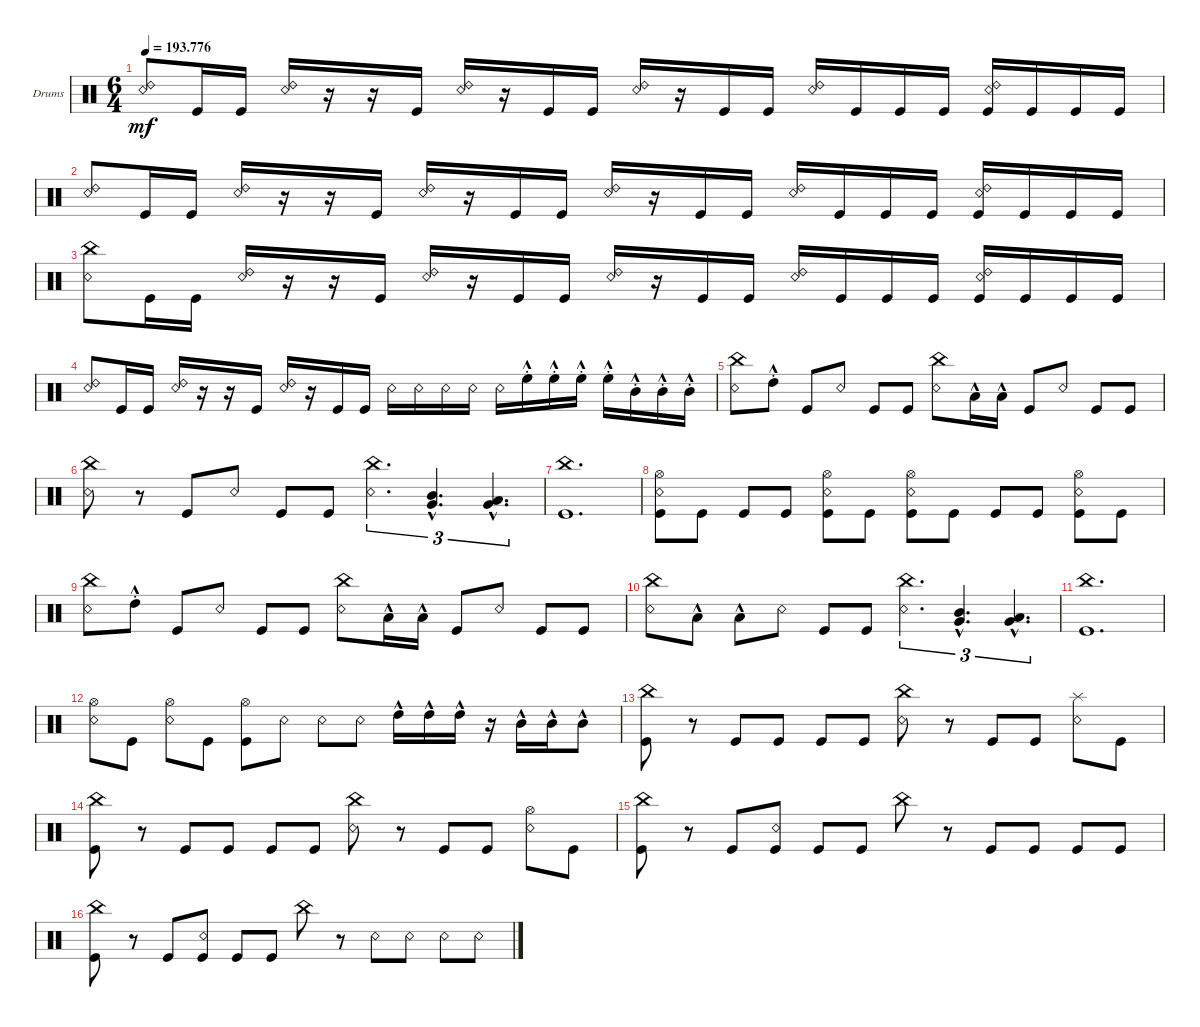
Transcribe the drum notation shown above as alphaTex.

\defaultSystemsLayout 4
\bracketExtendMode groupsimilarinstruments
\firstSystemTrackNameOrientation horizontal
\otherSystemsTrackNameOrientation horizontal
\track ("Drumkit" "Drums") {multiBarRest instrument percussion}
\staff {score}
\articulation defaults
\ts (6 4)
\tempo
193.776
\accidentals auto
\clef neutral
\ottava regular
\simile none
\scale
0.333333
\ks c
("Snare (rim shot)" "Ride (bell) 2").8{dy mf} "Kick (hit)".16 "Kick (hit)".16 ("Snare (rim shot)" "Ride (bell) 2").16 r.16 r.16 "Kick (hit)".16 ("Ride (bell) 2" "Snare (rim shot)").16 r.16 "Kick (hit)".16 "Kick (hit)".16 ("Snare (rim shot)" "Ride (bell) 2").16 r.16 "Kick (hit)".16 "Kick (hit)".16 ("Snare (rim shot)" "Ride (bell) 2").16 "Kick (hit)".16 "Kick (hit)".16 "Kick (hit)".16 ("Kick (hit)" "Snare (rim shot)" "Ride (bell) 2").16 "Kick (hit)".16 "Kick (hit)".16 "Kick (hit)".16 |
\scale
0.333333 ("Snare (rim shot)" "Ride (bell) 2").8 "Kick (hit)".16 "Kick (hit)".16 ("Snare (rim shot)" "Ride (bell) 2").16 r.16 r.16 "Kick (hit)".16 ("Ride (bell) 2" "Snare (rim shot)").16 r.16 "Kick (hit)".16 "Kick (hit)".16 ("Snare (rim shot)" "Ride (bell) 2").16 r.16 "Kick (hit)".16 "Kick (hit)".16 ("Snare (rim shot)" "Ride (bell) 2").16 "Kick (hit)".16 "Kick (hit)".16 "Kick (hit)".16 ("Kick (hit)" "Snare (rim shot)" "Ride (bell) 2").16 "Kick (hit)".16 "Kick (hit)".16 "Kick (hit)".16 |
\scale
0.333333 ("Snare (rim shot)" "China (hit)").8 "Kick (hit)".16 "Kick (hit)".16 ("Snare (rim shot)" "Ride (bell) 2").16 r.16 r.16 "Kick (hit)".16 ("Ride (bell) 2" "Snare (rim shot)").16 r.16 "Kick (hit)".16 "Kick (hit)".16 ("Snare (rim shot)" "Ride (bell) 2").16 r.16 "Kick (hit)".16 "Kick (hit)".16 ("Snare (rim shot)" "Ride (bell) 2").16 "Kick (hit)".16 "Kick (hit)".16 "Kick (hit)".16 ("Kick (hit)" "Snare (rim shot)" "Ride (bell) 2").16 "Kick (hit)".16 "Kick (hit)".16 "Kick (hit)".16 |
\scale
0.333333 ("Snare (rim shot)" "Ride (bell) 2").8 "Kick (hit)".16 "Kick (hit)".16 ("Snare (rim shot)" "Ride (bell) 2").16 r.16 r.16 "Kick (hit)".16 ("Ride (bell) 2" "Snare (rim shot)").16 r.16 "Kick (hit)".16 "Kick (hit)".16 "Snare (rim shot)".16 "Snare (rim shot)".16 "Snare (rim shot)".16 "Snare (rim shot)".16 "Snare (rim shot)".16 "High Floor Tom (hit)"{hac st}.16 "High Floor Tom (hit)"{hac st}.16 "High Floor Tom (hit)"{hac st}.16 "High Floor Tom (hit)"{hac st}.16 "Mid Tom (hit)"{hac st}.16 "Mid Tom (hit)"{hac st}.16 "Mid Tom (hit)"{hac st}.16 |
\scale
0.333333 ("China (hit)" "Snare (rim shot)").8 "High Tom (hit)"{hac st}.8 "Kick (hit)".8 "Snare (rim shot)".8 "Kick (hit)".8 "Kick (hit)".8 ("China (hit)" "Snare (rim shot)").8 "Low Tom (hit)"{hac}.16 "Low Tom (hit)"{hac}.16 "Kick (hit)".8 "Snare (rim shot)".8 "Kick (hit)".8 "Kick (hit)".8 |
\scale
0.333333 ("China (hit)" "Snare (rim shot)").8 r.8 "Kick (hit)".8 "Snare (rim shot)".8 "Kick (hit)".8 "Kick (hit)".8 ("China (hit)" "Snare (rim shot)").4{d tu (3 2)} ("Very Low Tom (hit)"{hac} "Mid Tom (hit)"{hac}).4{d tu (3 2)} ("Very Low Tom (hit)"{hac} "Low Tom (hit)"{hac}).4{d tu (3 2)} |
\scale
0.333333 ("Kick (hit)" "China (hit)").1{d} |
\scale
0.333333 ("Snare (rim shot)" "Kick (hit)" "Hi-Hat (open)").8 "Kick (hit)".8 "Kick (hit)".8 "Kick (hit)".8 ("Kick (hit)" "Snare (rim shot)" "Hi-Hat (open)").8 "Kick (hit)".8 ("Snare (rim shot)" "Kick (hit)" "Hi-Hat (open)").8 "Kick (hit)".8 "Kick (hit)".8 "Kick (hit)".8 ("Kick (hit)" "Snare (rim shot)" "Hi-Hat (open)").8 "Kick (hit)".8 |
\scale
0.333333 ("China (hit)" "Snare (rim shot)").8 "High Tom (hit)"{hac st}.8 "Kick (hit)".8 "Snare (rim shot)".8 "Kick (hit)".8 "Kick (hit)".8 ("China (hit)" "Snare (rim shot)").8 "Low Tom (hit)"{hac}.16 "Low Tom (hit)"{hac}.16 "Kick (hit)".8 "Snare (rim shot)".8 "Kick (hit)".8 "Kick (hit)".8 |
\scale
0.333333 ("China (hit)" "Snare (rim shot)").8 "Low Tom (hit)"{hac}.8 "Low Tom (hit)"{hac}.8 "Snare (rim shot)".8 "Kick (hit)".8 "Kick (hit)".8 ("China (hit)" "Snare (rim shot)").4{d tu (3 2)} ("Very Low Tom (hit)"{hac} "Mid Tom (hit)"{hac}).4{d tu (3 2)} ("Very Low Tom (hit)"{hac} "Low Tom (hit)"{hac}).4{d tu (3 2)} |
\scale
0.333333 ("Kick (hit)" "China (hit)").1{d} |
\scale
0.333333 ("Snare (rim shot)" "Hi-Hat (open)").8 "Kick (hit)".8 ("Snare (rim shot)" "Hi-Hat (open)").8 "Kick (hit)".8 ("Kick (hit)" "Hi-Hat (open)").8 "Snare (rim shot)".8 "Snare (rim shot)".8 "Snare (rim shot)".8 "High Tom (hit)"{hac}.16 "High Tom (hit)"{hac}.16 "High Tom (hit)"{hac}.16 r.16 "Mid Tom (hit)"{hac}.16 "Mid Tom (hit)"{hac}.16 "Mid Tom (hit)"{hac}.8 |
("China (hit)" "Kick (hit)").8 r.8 "Kick (hit)".8 "Kick (hit)".8 "Kick (hit)".8 "Kick (hit)".8 ("Snare (rim shot)" "China (hit)").8 r.8 "Kick (hit)".8 "Kick (hit)".8 ("Snare (rim shot)" "Splash (hit)").8 "Kick (hit)".8 |
\scale
0.333333 ("China (hit)" "Kick (hit)").8 r.8 "Kick (hit)".8 "Kick (hit)".8 "Kick (hit)".8 "Kick (hit)".8 ("Snare (rim shot)" "China (hit)").8 r.8 "Kick (hit)".8 "Kick (hit)".8 ("Snare (rim shot)" "Hi-Hat (open)").8 "Kick (hit)".8 |
\scale
0.333333 ("China (hit)" "Kick (hit)").8 r.8 "Kick (hit)".8 ("Kick (hit)" "Snare (rim shot)").8 "Kick (hit)".8 "Kick (hit)".8 "China (hit)".8 r.8 "Kick (hit)".8 "Kick (hit)".8 "Kick (hit)".8 "Kick (hit)".8 |
\scale
0.333333 ("China (hit)" "Kick (hit)").8 r.8 "Kick (hit)".8 ("Kick (hit)" "Snare (rim shot)").8 "Kick (hit)".8 "Kick (hit)".8 "China (hit)".8 r.8 "Snare (rim shot)".8 "Snare (rim shot)".8 "Snare (rim shot)".8 "Snare (rim shot)".8
